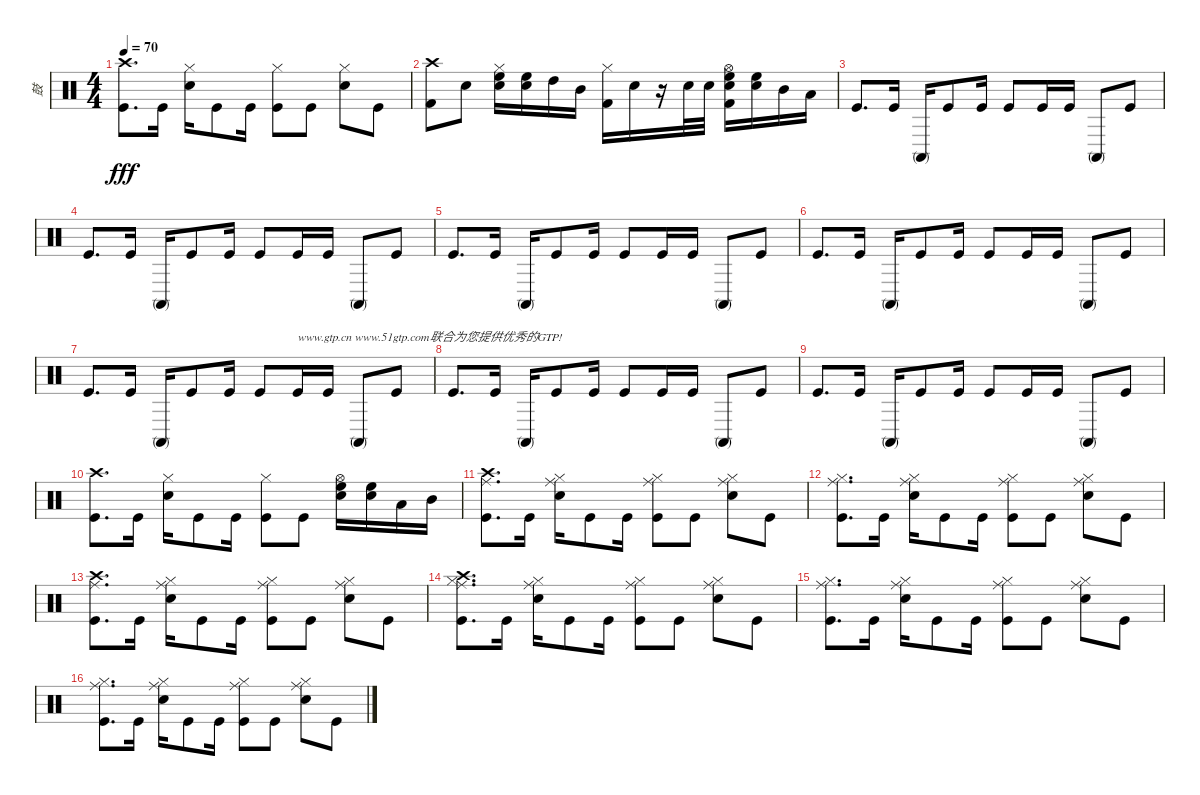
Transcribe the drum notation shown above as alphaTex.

\track ("鼓" "鼓") {instrument percussion}
\staff {score}
\articulation defaults
\ts (4 4)
\tempo 70
\clef neutral
\ks c
("Crash high (hit)" "Kick (hit)").8{d dy fff} "Kick (hit)".16 ("Hi-Hat (closed)" "Electric Snare (hit)").16 "Kick (hit)".8 "Kick (hit)".16 ("Hi-Hat (closed)" "Kick (hit)").8 "Kick (hit)".8 ("Hi-Hat (closed)" "Electric Snare (hit)").8 "Kick (hit)".8 |
("Crash high (hit)" "Kick (hit) 2").8 "Snare (hit) 2".8 ("Hi-Hat (closed)" "High Floor Tom (hit)" "Electric Snare (hit)").16 ("High Floor Tom (hit)" "Electric Snare (hit)").16 "High Tom (hit)".16 "Mid Tom (hit)".16 ("Hi-Hat (closed)" "Kick (hit) 2").16 "Electric Snare (hit)".16 r.16 "Snare (hit) 2".32 "Snare (hit) 2".32 ("Hi-Hat (open)" "High Floor Tom (hit)" "Electric Snare (hit)" "Kick (hit) 2").16 ("High Floor Tom (hit)" "Electric Snare (hit)").16 "Mid Tom (hit)".16 "Low Tom (hit)".16 |
"Kick (hit)".8{d} "Kick (hit)".16 "Conga high (mute)".16 "Kick (hit)".8 "Kick (hit)".16 "Kick (hit)".8 "Kick (hit)".16 "Kick (hit)".16 "Conga high (mute)".8 "Kick (hit)".8 |
"Kick (hit)".8{d} "Kick (hit)".16 "Conga high (mute)".16 "Kick (hit)".8 "Kick (hit)".16 "Kick (hit)".8 "Kick (hit)".16 "Kick (hit)".16 "Conga high (mute)".8 "Kick (hit)".8 |
"Kick (hit)".8{d} "Kick (hit)".16 "Conga high (mute)".16 "Kick (hit)".8 "Kick (hit)".16 "Kick (hit)".8 "Kick (hit)".16 "Kick (hit)".16 "Conga high (mute)".8 "Kick (hit)".8 |
"Kick (hit)".8{d} "Kick (hit)".16 "Conga high (mute)".16 "Kick (hit)".8 "Kick (hit)".16 "Kick (hit)".8 "Kick (hit)".16 "Kick (hit)".16 "Conga high (mute)".8 "Kick (hit)".8 |
"Kick (hit)".8{d} "Kick (hit)".16 "Conga high (mute)".16 "Kick (hit)".8 "Kick (hit)".16 "Kick (hit)".8 "Kick (hit)".16{txt "www.gtp.cn www.51gtp.com联合为您提供优秀的GTP!"} "Kick (hit)".16 "Conga high (mute)".8 "Kick (hit)".8 |
"Kick (hit)".8{d} "Kick (hit)".16 "Conga high (mute)".16 "Kick (hit)".8 "Kick (hit)".16 "Kick (hit)".8 "Kick (hit)".16 "Kick (hit)".16 "Conga high (mute)".8 "Kick (hit)".8 |
"Kick (hit)".8{d} "Kick (hit)".16 "Conga high (mute)".16 "Kick (hit)".8 "Kick (hit)".16 "Kick (hit)".8 "Kick (hit)".16 "Kick (hit)".16 "Conga high (mute)".8 "Kick (hit)".8 |
("Crash high (hit)" "Kick (hit)").8{d} "Kick (hit)".16 ("Hi-Hat (closed)" "Electric Snare (hit)").16 "Kick (hit)".8 "Kick (hit)".16 ("Hi-Hat (closed)" "Kick (hit)").8 "Kick (hit)".8 ("Hi-Hat (open)" "High Floor Tom (hit)" "Electric Snare (hit)").16 ("High Floor Tom (hit)" "Electric Snare (hit)").16 "Low Tom (hit)".16 "Mid Tom (hit)".16 |
("Ride (middle)" "Crash high (hit)" "Kick (hit)").8{d} "Kick (hit)".16 ("Ride (middle)" "Hi-Hat (closed)" "Electric Snare (hit)").16 "Kick (hit)".8 "Kick (hit)".16 ("Ride (middle)" "Hi-Hat (closed)" "Kick (hit)").8 "Kick (hit)".8 ("Ride (middle)" "Hi-Hat (closed)" "Electric Snare (hit)").8 "Kick (hit)".8 |
("Ride (middle)" "Hi-Hat (closed)" "Kick (hit)").8{d} "Kick (hit)".16 ("Ride (middle)" "Hi-Hat (closed)" "Electric Snare (hit)").16 "Kick (hit)".8 "Kick (hit)".16 ("Ride (middle)" "Hi-Hat (closed)" "Kick (hit)").8 "Kick (hit)".8 ("Ride (middle)" "Hi-Hat (closed)" "Electric Snare (hit)").8 "Kick (hit)".8 |
("Ride (middle)" "Crash high (hit)" "Kick (hit)").8{d} "Kick (hit)".16 ("Ride (middle)" "Hi-Hat (closed)" "Electric Snare (hit)").16 "Kick (hit)".8 "Kick (hit)".16 ("Ride (middle)" "Hi-Hat (closed)" "Kick (hit)").8 "Kick (hit)".8 ("Ride (middle)" "Hi-Hat (closed)" "Electric Snare (hit)").8 "Kick (hit)".8 |
("Ride (middle)" "Crash high (hit)" "Hi-Hat (closed)" "Kick (hit)").8{d} "Kick (hit)".16 ("Ride (middle)" "Hi-Hat (closed)" "Electric Snare (hit)").16 "Kick (hit)".8 "Kick (hit)".16 ("Ride (middle)" "Hi-Hat (closed)" "Kick (hit)").8 "Kick (hit)".8 ("Ride (middle)" "Hi-Hat (closed)" "Electric Snare (hit)").8 "Kick (hit)".8 |
("Ride (middle)" "Hi-Hat (closed)" "Kick (hit)").8{d} "Kick (hit)".16 ("Ride (middle)" "Hi-Hat (closed)" "Electric Snare (hit)").16 "Kick (hit)".8 "Kick (hit)".16 ("Ride (middle)" "Hi-Hat (closed)" "Kick (hit)").8 "Kick (hit)".8 ("Ride (middle)" "Hi-Hat (closed)" "Electric Snare (hit)").8 "Kick (hit)".8 |
("Ride (middle)" "Hi-Hat (closed)" "Kick (hit)").8{d} "Kick (hit)".16 ("Ride (middle)" "Hi-Hat (closed)" "Electric Snare (hit)").16 "Kick (hit)".8 "Kick (hit)".16 ("Ride (middle)" "Hi-Hat (closed)" "Kick (hit)").8 "Kick (hit)".8 ("Ride (middle)" "Hi-Hat (closed)" "Electric Snare (hit)").8 "Kick (hit)".8
